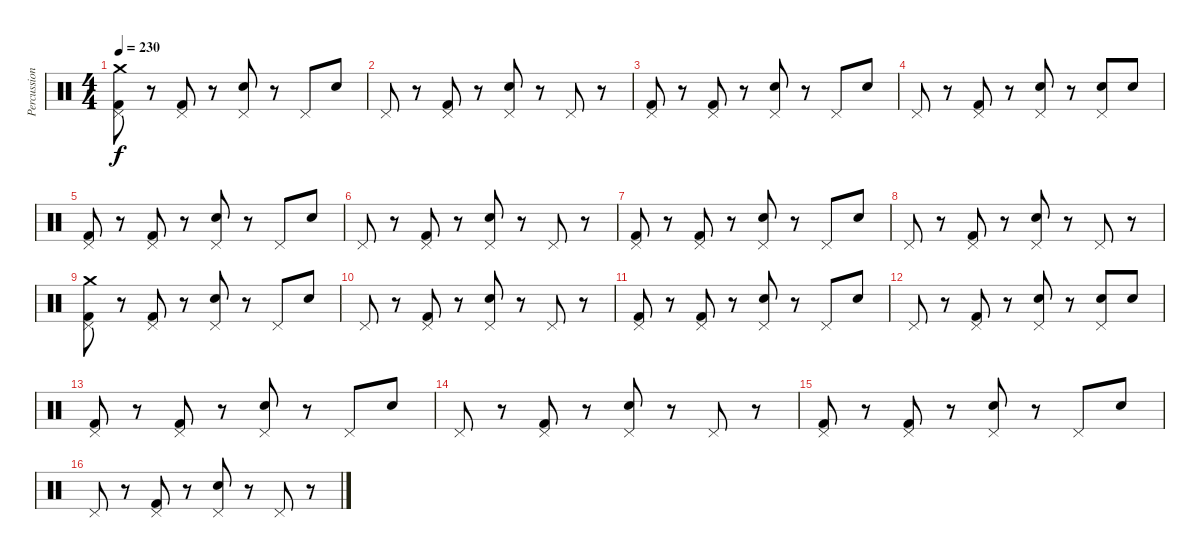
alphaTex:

\track ("Percussion" "Percussion") {instrument percussion}
\staff {score}
\articulation defaults
\ts (4 4)
\tempo 230
\clef neutral
\ks c
("Pedal Hi-Hat (hit)" "Kick (hit) 2" "Crash medium (hit)").8{dy f} r.8 ("Pedal Hi-Hat (hit)" "Kick (hit) 2").8 r.8 ("Pedal Hi-Hat (hit)" "Snare (hit) 2").8 r.8 "Pedal Hi-Hat (hit)".8 "Snare (hit) 2".8 |
"Pedal Hi-Hat (hit)".8 r.8 ("Pedal Hi-Hat (hit)" "Kick (hit) 2").8 r.8 ("Pedal Hi-Hat (hit)" "Snare (hit) 2").8 r.8 "Pedal Hi-Hat (hit)".8 r.8 |
("Pedal Hi-Hat (hit)" "Kick (hit) 2").8 r.8 ("Pedal Hi-Hat (hit)" "Kick (hit) 2").8 r.8 ("Pedal Hi-Hat (hit)" "Snare (hit) 2").8 r.8 "Pedal Hi-Hat (hit)".8 "Snare (hit) 2".8 |
"Pedal Hi-Hat (hit)".8 r.8 ("Pedal Hi-Hat (hit)" "Kick (hit) 2").8 r.8 ("Pedal Hi-Hat (hit)" "Snare (hit) 2").8 r.8 ("Pedal Hi-Hat (hit)" "Snare (hit) 2").8 "Snare (hit) 2".8 |
("Pedal Hi-Hat (hit)" "Kick (hit) 2").8 r.8 ("Pedal Hi-Hat (hit)" "Kick (hit) 2").8 r.8 ("Pedal Hi-Hat (hit)" "Snare (hit) 2").8 r.8 "Pedal Hi-Hat (hit)".8 "Snare (hit) 2".8 |
"Pedal Hi-Hat (hit)".8 r.8 ("Pedal Hi-Hat (hit)" "Kick (hit) 2").8 r.8 ("Pedal Hi-Hat (hit)" "Snare (hit) 2").8 r.8 "Pedal Hi-Hat (hit)".8 r.8 |
("Pedal Hi-Hat (hit)" "Kick (hit) 2").8 r.8 ("Pedal Hi-Hat (hit)" "Kick (hit) 2").8 r.8 ("Pedal Hi-Hat (hit)" "Snare (hit) 2").8 r.8 "Pedal Hi-Hat (hit)".8 "Snare (hit) 2".8 |
"Pedal Hi-Hat (hit)".8 r.8 ("Pedal Hi-Hat (hit)" "Kick (hit) 2").8 r.8 ("Pedal Hi-Hat (hit)" "Snare (hit) 2").8 r.8 "Pedal Hi-Hat (hit)".8 r.8 |
("Pedal Hi-Hat (hit)" "Kick (hit) 2" "Crash medium (hit)").8 r.8 ("Pedal Hi-Hat (hit)" "Kick (hit) 2").8 r.8 ("Pedal Hi-Hat (hit)" "Snare (hit) 2").8 r.8 "Pedal Hi-Hat (hit)".8 "Snare (hit) 2".8 |
"Pedal Hi-Hat (hit)".8 r.8 ("Pedal Hi-Hat (hit)" "Kick (hit) 2").8 r.8 ("Pedal Hi-Hat (hit)" "Snare (hit) 2").8 r.8 "Pedal Hi-Hat (hit)".8 r.8 |
("Pedal Hi-Hat (hit)" "Kick (hit) 2").8 r.8 ("Pedal Hi-Hat (hit)" "Kick (hit) 2").8 r.8 ("Pedal Hi-Hat (hit)" "Snare (hit) 2").8 r.8 "Pedal Hi-Hat (hit)".8 "Snare (hit) 2".8 |
"Pedal Hi-Hat (hit)".8 r.8 ("Pedal Hi-Hat (hit)" "Kick (hit) 2").8 r.8 ("Pedal Hi-Hat (hit)" "Snare (hit) 2").8 r.8 ("Pedal Hi-Hat (hit)" "Snare (hit) 2").8 "Snare (hit) 2".8 |
("Pedal Hi-Hat (hit)" "Kick (hit) 2").8 r.8 ("Pedal Hi-Hat (hit)" "Kick (hit) 2").8 r.8 ("Pedal Hi-Hat (hit)" "Snare (hit) 2").8 r.8 "Pedal Hi-Hat (hit)".8 "Snare (hit) 2".8 |
"Pedal Hi-Hat (hit)".8 r.8 ("Pedal Hi-Hat (hit)" "Kick (hit) 2").8 r.8 ("Pedal Hi-Hat (hit)" "Snare (hit) 2").8 r.8 "Pedal Hi-Hat (hit)".8 r.8 |
("Pedal Hi-Hat (hit)" "Kick (hit) 2").8 r.8 ("Pedal Hi-Hat (hit)" "Kick (hit) 2").8 r.8 ("Pedal Hi-Hat (hit)" "Snare (hit) 2").8 r.8 "Pedal Hi-Hat (hit)".8 "Snare (hit) 2".8 |
"Pedal Hi-Hat (hit)".8 r.8 ("Pedal Hi-Hat (hit)" "Kick (hit) 2").8 r.8 ("Pedal Hi-Hat (hit)" "Snare (hit) 2").8 r.8 "Pedal Hi-Hat (hit)".8 r.8
